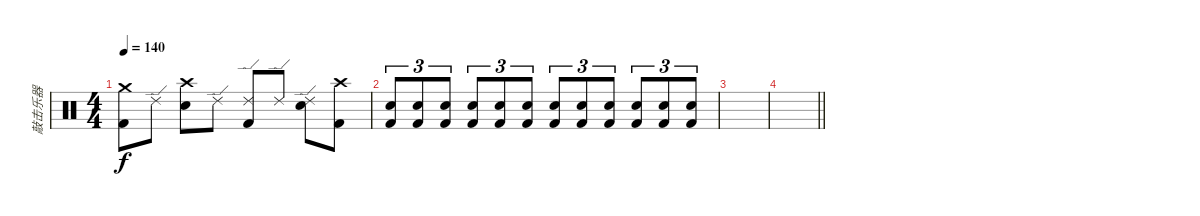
\track ("敲击乐器" "敲击乐器") {instrument percussion}
\staff {score}
\articulation defaults
\ts (4 4)
\tempo 140
\clef neutral
\ks c
("Crash medium (hit)" "Kick (hit) 2").8{dy f} "Ride (edge) 2".8 ("Crash high (hit)" "Snare (hit) 2").8 "Ride (edge) 2".8 ("Ride (edge) 2" "Kick (hit) 2").8 "Ride (edge) 2".8 ("Ride (edge) 2" "Snare (hit) 2").8 ("Crash high (hit)" "Kick (hit) 2").8 |
("Electric Snare (hit)" "Kick (hit) 2").8{tu (3 2)} ("Electric Snare (hit)" "Kick (hit) 2").8{tu (3 2)} ("Electric Snare (hit)" "Kick (hit) 2").8{tu (3 2)} ("Electric Snare (hit)" "Kick (hit) 2").8{tu (3 2)} ("Electric Snare (hit)" "Kick (hit) 2").8{tu (3 2)} ("Electric Snare (hit)" "Kick (hit) 2").8{tu (3 2)} ("Electric Snare (hit)" "Kick (hit) 2").8{tu (3 2)} ("Electric Snare (hit)" "Kick (hit) 2").8{tu (3 2)} ("Electric Snare (hit)" "Kick (hit) 2").8{tu (3 2)} ("Electric Snare (hit)" "Kick (hit) 2").8{tu (3 2)} ("Electric Snare (hit)" "Kick (hit) 2").8{tu (3 2)} ("Electric Snare (hit)" "Kick (hit) 2").8{tu (3 2)} |
|
\barLineRight lightlight
